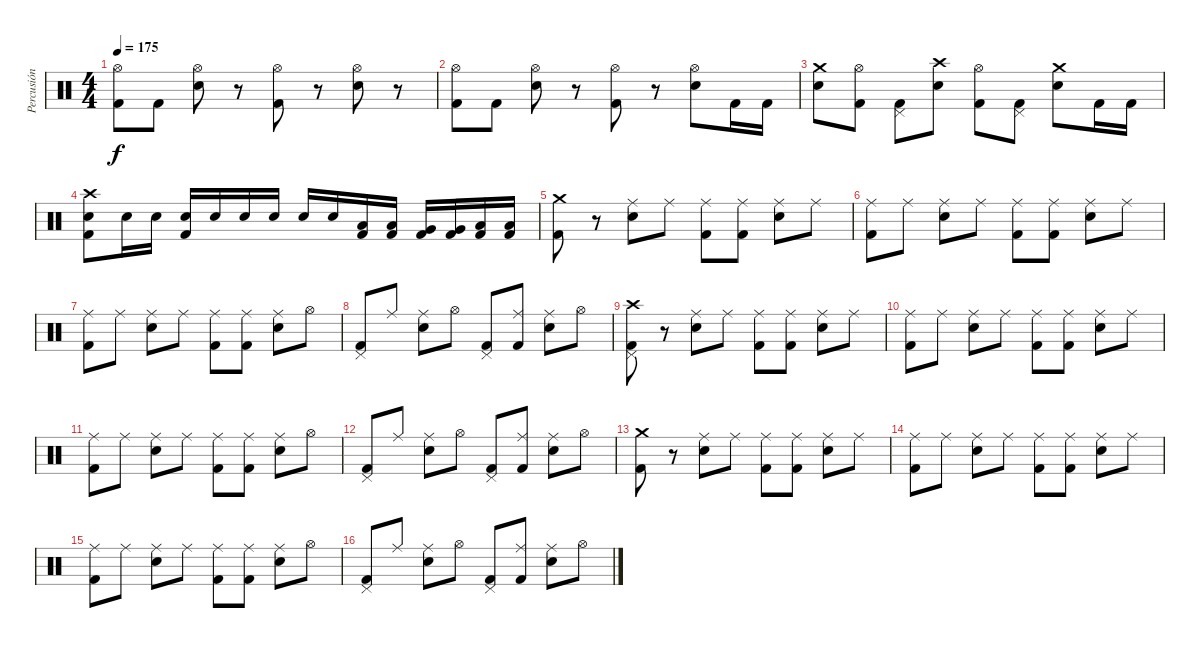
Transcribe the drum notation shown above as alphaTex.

\track ("Percusión" "Percusión") {instrument percussion}
\staff {score}
\articulation defaults
\ts (4 4)
\tempo 175
\clef neutral
\ks c
("Hi-Hat (open)" "Kick (hit) 2").8{dy f} "Kick (hit) 2".8 ("Hi-Hat (open)" "Electric Snare (hit)").8 r.8 ("Hi-Hat (open)" "Kick (hit) 2").8 r.8 ("Hi-Hat (open)" "Electric Snare (hit)").8 r.8 |
("Hi-Hat (open)" "Kick (hit) 2").8 "Kick (hit) 2".8 ("Hi-Hat (open)" "Electric Snare (hit)").8 r.8 ("Hi-Hat (open)" "Kick (hit) 2").8 r.8 ("Hi-Hat (open)" "Electric Snare (hit)").8 "Kick (hit) 2".16 "Kick (hit) 2".16 |
("Crash medium (hit)" "Electric Snare (hit)").8 ("Hi-Hat (open)" "Kick (hit) 2").8 ("Pedal Hi-Hat (hit)" "Kick (hit) 2").8 ("Crash high (hit)" "Electric Snare (hit)").8 ("Hi-Hat (open)" "Kick (hit) 2").8 ("Pedal Hi-Hat (hit)" "Kick (hit) 2").8 ("Crash medium (hit)" "Electric Snare (hit)").8 "Kick (hit) 2".16 "Kick (hit) 2".16 |
("Crash high (hit)" "Electric Snare (hit)" "Kick (hit) 2").8 "Electric Snare (hit)".16 "Electric Snare (hit)".16 ("Electric Snare (hit)" "Kick (hit) 2").16 "Electric Snare (hit)".16 "Electric Snare (hit)".16 "Electric Snare (hit)".16 "Electric Snare (hit)".16 "Electric Snare (hit)".16 ("Low Tom (hit)" "Kick (hit) 2").16 ("Low Tom (hit)" "Kick (hit) 2").16 ("Very Low Tom (hit)" "Kick (hit) 2").16 ("Very Low Tom (hit)" "Kick (hit) 2").16 ("Low Floor Tom (hit)" "Kick (hit) 2").16 ("Low Floor Tom (hit)" "Kick (hit) 2").16 |
("Crash medium (hit)" "Kick (hit) 2").8 r.8 ("Ride (middle)" "Electric Snare (hit)").8 "Ride (middle)".8 ("Ride (middle)" "Kick (hit) 2").8 ("Ride (middle)" "Kick (hit) 2").8 ("Ride (middle)" "Electric Snare (hit)").8 "Ride (middle)".8 |
("Ride (middle)" "Kick (hit) 2").8 "Ride (middle)".8 ("Ride (middle)" "Electric Snare (hit)").8 "Ride (middle)".8 ("Ride (middle)" "Kick (hit) 2").8 ("Ride (middle)" "Kick (hit) 2").8 ("Ride (middle)" "Electric Snare (hit)").8 "Ride (middle)".8 |
("Ride (middle)" "Kick (hit) 2").8 "Ride (middle)".8 ("Ride (middle)" "Electric Snare (hit)").8 "Ride (middle)".8 ("Ride (middle)" "Kick (hit) 2").8 ("Ride (middle)" "Kick (hit) 2").8 ("Ride (middle)" "Electric Snare (hit)").8 "Hi-Hat (open)".8 |
("Pedal Hi-Hat (hit)" "Kick (hit) 2").8 "Ride (middle)".8 ("Ride (middle)" "Electric Snare (hit)").8 "Hi-Hat (open)".8 ("Pedal Hi-Hat (hit)" "Kick (hit) 2").8 ("Ride (middle)" "Kick (hit) 2").8 ("Ride (middle)" "Electric Snare (hit)").8 "Hi-Hat (open)".8 |
("Crash high (hit)" "Pedal Hi-Hat (hit)" "Kick (hit) 2").8 r.8 ("Ride (middle)" "Electric Snare (hit)").8 "Ride (middle)".8 ("Ride (middle)" "Kick (hit) 2").8 ("Ride (middle)" "Kick (hit) 2").8 ("Ride (middle)" "Electric Snare (hit)").8 "Ride (middle)".8 |
("Ride (middle)" "Kick (hit) 2").8 "Ride (middle)".8 ("Ride (middle)" "Electric Snare (hit)").8 "Ride (middle)".8 ("Ride (middle)" "Kick (hit) 2").8 ("Ride (middle)" "Kick (hit) 2").8 ("Ride (middle)" "Electric Snare (hit)").8 "Ride (middle)".8 |
("Ride (middle)" "Kick (hit) 2").8 "Ride (middle)".8 ("Ride (middle)" "Electric Snare (hit)").8 "Ride (middle)".8 ("Ride (middle)" "Kick (hit) 2").8 ("Ride (middle)" "Kick (hit) 2").8 ("Ride (middle)" "Electric Snare (hit)").8 "Hi-Hat (open)".8 |
("Pedal Hi-Hat (hit)" "Kick (hit) 2").8 "Ride (middle)".8 ("Ride (middle)" "Electric Snare (hit)").8 "Hi-Hat (open)".8 ("Pedal Hi-Hat (hit)" "Kick (hit) 2").8 ("Ride (middle)" "Kick (hit) 2").8 ("Ride (middle)" "Electric Snare (hit)").8 "Hi-Hat (open)".8 |
("Crash medium (hit)" "Kick (hit) 2").8 r.8 ("Ride (middle)" "Electric Snare (hit)").8 "Ride (middle)".8 ("Ride (middle)" "Kick (hit) 2").8 ("Ride (middle)" "Kick (hit) 2").8 ("Ride (middle)" "Electric Snare (hit)").8 "Ride (middle)".8 |
("Ride (middle)" "Kick (hit) 2").8 "Ride (middle)".8 ("Ride (middle)" "Electric Snare (hit)").8 "Ride (middle)".8 ("Ride (middle)" "Kick (hit) 2").8 ("Ride (middle)" "Kick (hit) 2").8 ("Ride (middle)" "Electric Snare (hit)").8 "Ride (middle)".8 |
("Ride (middle)" "Kick (hit) 2").8 "Ride (middle)".8 ("Ride (middle)" "Electric Snare (hit)").8 "Ride (middle)".8 ("Ride (middle)" "Kick (hit) 2").8 ("Ride (middle)" "Kick (hit) 2").8 ("Ride (middle)" "Electric Snare (hit)").8 "Hi-Hat (open)".8 |
("Pedal Hi-Hat (hit)" "Kick (hit) 2").8 "Ride (middle)".8 ("Ride (middle)" "Electric Snare (hit)").8 "Hi-Hat (open)".8 ("Pedal Hi-Hat (hit)" "Kick (hit) 2").8 ("Ride (middle)" "Kick (hit) 2").8 ("Ride (middle)" "Electric Snare (hit)").8 "Hi-Hat (open)".8
